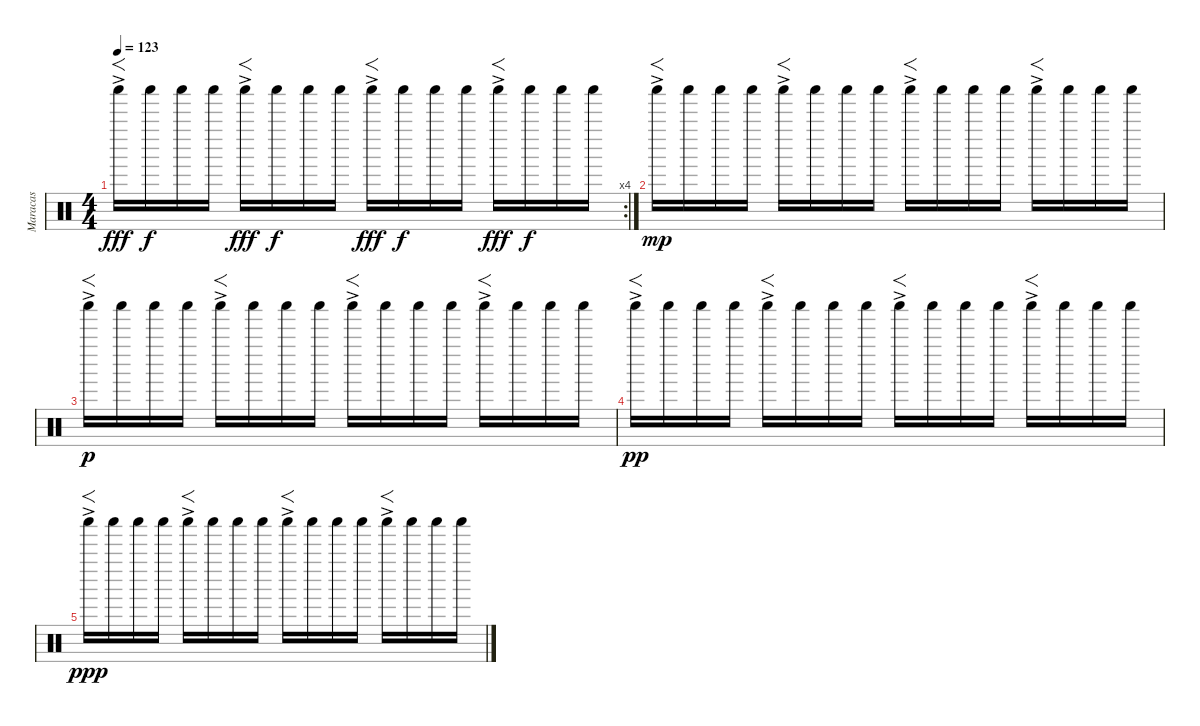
\track ("Maracas" "Maracas") {instrument percussion}
\staff {score}
\articulation defaults
\rc 4
\ts (4 4)
\tempo 123
\clef neutral
\ks c "Shaker (hit)"{ac}.16{f dy fff} "Shaker (hit)".16{dy f} "Shaker (hit)".16 "Shaker (hit)".16 "Shaker (hit)"{ac}.16{f dy fff} "Shaker (hit)".16{dy f} "Shaker (hit)".16 "Shaker (hit)".16 "Shaker (hit)"{ac}.16{f dy fff} "Shaker (hit)".16{dy f} "Shaker (hit)".16 "Shaker (hit)".16 "Shaker (hit)"{ac}.16{f dy fff} "Shaker (hit)".16{dy f} "Shaker (hit)".16 "Shaker (hit)".16
|
"Shaker (hit)"{ac}.16{f dy mp} "Shaker (hit)".16 "Shaker (hit)".16 "Shaker (hit)".16 "Shaker (hit)"{ac}.16{f} "Shaker (hit)".16 "Shaker (hit)".16 "Shaker (hit)".16 "Shaker (hit)"{ac}.16{f} "Shaker (hit)".16 "Shaker (hit)".16 "Shaker (hit)".16 "Shaker (hit)"{ac}.16{f} "Shaker (hit)".16 "Shaker (hit)".16 "Shaker (hit)".16 |
"Shaker (hit)"{ac}.16{f dy p} "Shaker (hit)".16 "Shaker (hit)".16 "Shaker (hit)".16 "Shaker (hit)"{ac}.16{f} "Shaker (hit)".16 "Shaker (hit)".16 "Shaker (hit)".16 "Shaker (hit)"{ac}.16{f} "Shaker (hit)".16 "Shaker (hit)".16 "Shaker (hit)".16 "Shaker (hit)"{ac}.16{f} "Shaker (hit)".16 "Shaker (hit)".16 "Shaker (hit)".16 |
"Shaker (hit)"{ac}.16{f dy pp} "Shaker (hit)".16 "Shaker (hit)".16 "Shaker (hit)".16 "Shaker (hit)"{ac}.16{f} "Shaker (hit)".16 "Shaker (hit)".16 "Shaker (hit)".16 "Shaker (hit)"{ac}.16{f} "Shaker (hit)".16 "Shaker (hit)".16 "Shaker (hit)".16 "Shaker (hit)"{ac}.16{f} "Shaker (hit)".16 "Shaker (hit)".16 "Shaker (hit)".16 |
"Shaker (hit)"{ac}.16{f dy ppp} "Shaker (hit)".16 "Shaker (hit)".16 "Shaker (hit)".16 "Shaker (hit)"{ac}.16{f} "Shaker (hit)".16 "Shaker (hit)".16 "Shaker (hit)".16 "Shaker (hit)"{ac}.16{f} "Shaker (hit)".16 "Shaker (hit)".16 "Shaker (hit)".16 "Shaker (hit)"{ac}.16{f} "Shaker (hit)".16 "Shaker (hit)".16 "Shaker (hit)".16
